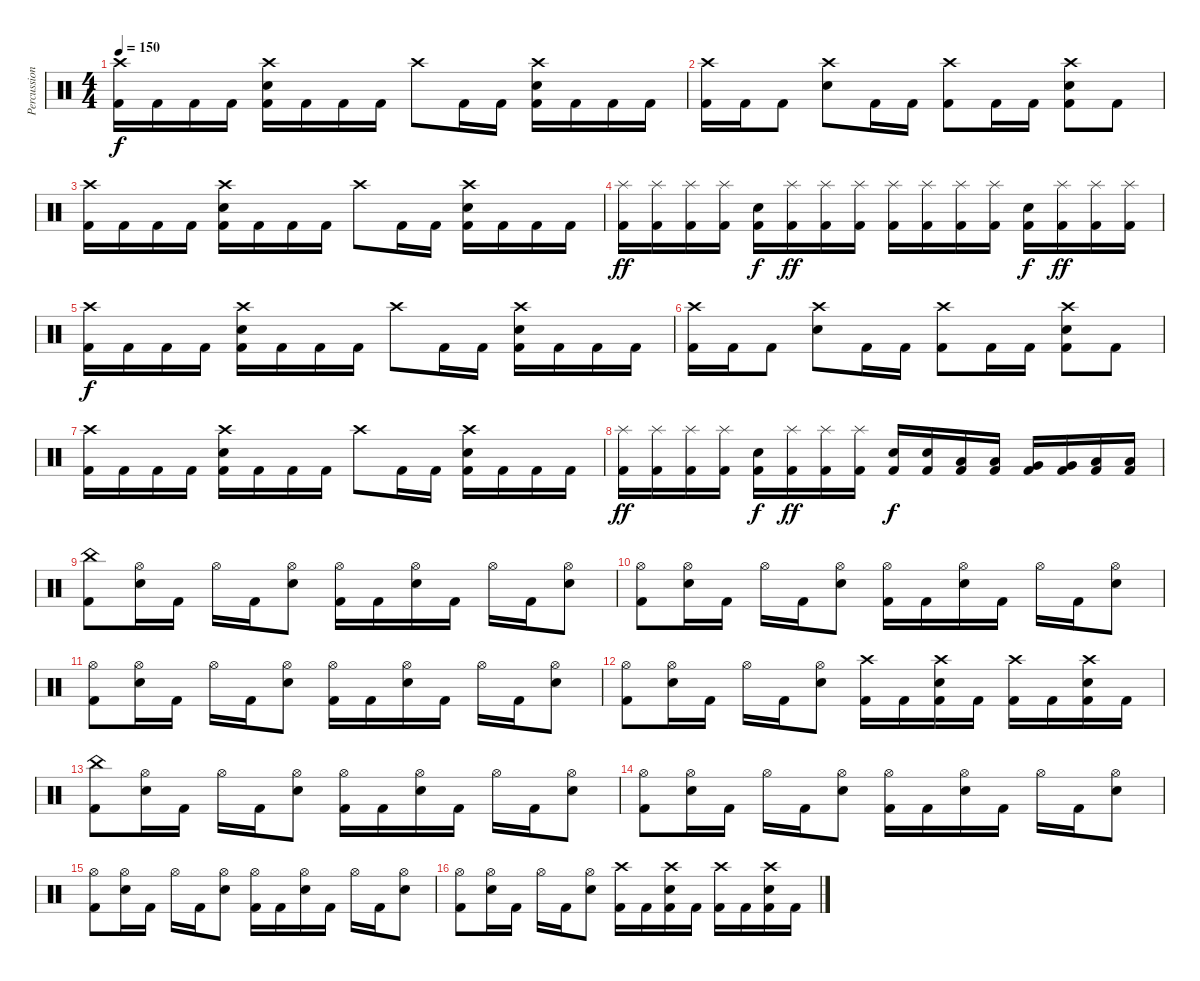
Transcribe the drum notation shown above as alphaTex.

\track ("Percussion" "Percussion") {instrument percussion}
\staff {score}
\articulation defaults
\ts (4 4)
\tempo 150
\clef neutral
\ks c
("Crash high (hit)" "Kick (hit) 2").16{dy f} "Kick (hit) 2".16 "Kick (hit) 2".16 "Kick (hit) 2".16 ("Crash high (hit)" "Electric Snare (hit)" "Kick (hit) 2").16 "Kick (hit) 2".16 "Kick (hit) 2".16 "Kick (hit) 2".16 "Crash high (hit)".8 "Kick (hit) 2".16 "Kick (hit) 2".16 ("Crash high (hit)" "Electric Snare (hit)" "Kick (hit) 2").16 "Kick (hit) 2".16 "Kick (hit) 2".16 "Kick (hit) 2".16 |
("Crash high (hit)" "Kick (hit) 2").16 "Kick (hit) 2".16 "Kick (hit) 2".8 ("Crash high (hit)" "Electric Snare (hit)").8 "Kick (hit) 2".16 "Kick (hit) 2".16 ("Crash high (hit)" "Kick (hit) 2").8 "Kick (hit) 2".16 "Kick (hit) 2".16 ("Crash high (hit)" "Electric Snare (hit)" "Kick (hit) 2").8 "Kick (hit) 2".8 |
("Crash high (hit)" "Kick (hit) 2").16 "Kick (hit) 2".16 "Kick (hit) 2".16 "Kick (hit) 2".16 ("Crash high (hit)" "Electric Snare (hit)" "Kick (hit) 2").16 "Kick (hit) 2".16 "Kick (hit) 2".16 "Kick (hit) 2".16 "Crash high (hit)".8 "Kick (hit) 2".16 "Kick (hit) 2".16 ("Crash high (hit)" "Electric Snare (hit)" "Kick (hit) 2").16 "Kick (hit) 2".16 "Kick (hit) 2".16 "Kick (hit) 2".16 |
("Splash (hit)" "Kick (hit) 2").16{dy ff} ("Splash (hit)" "Kick (hit) 2").16 ("Splash (hit)" "Kick (hit) 2").16 ("Splash (hit)" "Kick (hit) 2").16 ("Electric Snare (hit)" "Kick (hit) 2").16{dy f} ("Splash (hit)" "Kick (hit) 2").16{dy ff} ("Splash (hit)" "Kick (hit) 2").16 ("Splash (hit)" "Kick (hit) 2").16 ("Splash (hit)" "Kick (hit) 2").16 ("Splash (hit)" "Kick (hit) 2").16 ("Splash (hit)" "Kick (hit) 2").16 ("Splash (hit)" "Kick (hit) 2").16 ("Electric Snare (hit)" "Kick (hit) 2").16{dy f} ("Splash (hit)" "Kick (hit) 2").16{dy ff} ("Splash (hit)" "Kick (hit) 2").16 ("Splash (hit)" "Kick (hit) 2").16 |
("Crash high (hit)" "Kick (hit) 2").16{dy f} "Kick (hit) 2".16 "Kick (hit) 2".16 "Kick (hit) 2".16 ("Crash high (hit)" "Electric Snare (hit)" "Kick (hit) 2").16 "Kick (hit) 2".16 "Kick (hit) 2".16 "Kick (hit) 2".16 "Crash high (hit)".8 "Kick (hit) 2".16 "Kick (hit) 2".16 ("Crash high (hit)" "Electric Snare (hit)" "Kick (hit) 2").16 "Kick (hit) 2".16 "Kick (hit) 2".16 "Kick (hit) 2".16 |
("Crash high (hit)" "Kick (hit) 2").16 "Kick (hit) 2".16 "Kick (hit) 2".8 ("Crash high (hit)" "Electric Snare (hit)").8 "Kick (hit) 2".16 "Kick (hit) 2".16 ("Crash high (hit)" "Kick (hit) 2").8 "Kick (hit) 2".16 "Kick (hit) 2".16 ("Crash high (hit)" "Electric Snare (hit)" "Kick (hit) 2").8 "Kick (hit) 2".8 |
("Crash high (hit)" "Kick (hit) 2").16 "Kick (hit) 2".16 "Kick (hit) 2".16 "Kick (hit) 2".16 ("Crash high (hit)" "Electric Snare (hit)" "Kick (hit) 2").16 "Kick (hit) 2".16 "Kick (hit) 2".16 "Kick (hit) 2".16 "Crash high (hit)".8 "Kick (hit) 2".16 "Kick (hit) 2".16 ("Crash high (hit)" "Electric Snare (hit)" "Kick (hit) 2").16 "Kick (hit) 2".16 "Kick (hit) 2".16 "Kick (hit) 2".16 |
("Splash (hit)" "Kick (hit) 2").16{dy ff} ("Splash (hit)" "Kick (hit) 2").16 ("Splash (hit)" "Kick (hit) 2").16 ("Splash (hit)" "Kick (hit) 2").16 ("Electric Snare (hit)" "Kick (hit) 2").16{dy f} ("Splash (hit)" "Kick (hit) 2").16{dy ff} ("Splash (hit)" "Kick (hit) 2").16 ("Splash (hit)" "Kick (hit) 2").16 ("Electric Snare (hit)" "Kick (hit) 2").16{dy f} ("Electric Snare (hit)" "Kick (hit) 2").16 ("Low Tom (hit)" "Kick (hit) 2").16 ("Low Tom (hit)" "Kick (hit) 2").16 ("Very Low Tom (hit)" "Kick (hit) 2").16 ("Very Low Tom (hit)" "Kick (hit) 2").16 ("Low Floor Tom (hit)" "Kick (hit) 2").16 ("Low Floor Tom (hit)" "Kick (hit) 2").16 |
("China (hit)" "Kick (hit) 2").8 ("Hi-Hat (open)" "Electric Snare (hit)").16 "Kick (hit) 2".16 "Hi-Hat (open)".16 "Kick (hit) 2".16 ("Hi-Hat (open)" "Electric Snare (hit)").8 ("Hi-Hat (open)" "Kick (hit) 2").16 "Kick (hit) 2".16 ("Hi-Hat (open)" "Electric Snare (hit)").16 "Kick (hit) 2".16 "Hi-Hat (open)".16 "Kick (hit) 2".16 ("Hi-Hat (open)" "Electric Snare (hit)").8 |
("Hi-Hat (open)" "Kick (hit) 2").8 ("Hi-Hat (open)" "Electric Snare (hit)").16 "Kick (hit) 2".16 "Hi-Hat (open)".16 "Kick (hit) 2".16 ("Hi-Hat (open)" "Electric Snare (hit)").8 ("Hi-Hat (open)" "Kick (hit) 2").16 "Kick (hit) 2".16 ("Hi-Hat (open)" "Electric Snare (hit)").16 "Kick (hit) 2".16 "Hi-Hat (open)".16 "Kick (hit) 2".16 ("Hi-Hat (open)" "Electric Snare (hit)").8 |
("Hi-Hat (open)" "Kick (hit) 2").8 ("Hi-Hat (open)" "Electric Snare (hit)").16 "Kick (hit) 2".16 "Hi-Hat (open)".16 "Kick (hit) 2".16 ("Hi-Hat (open)" "Electric Snare (hit)").8 ("Hi-Hat (open)" "Kick (hit) 2").16 "Kick (hit) 2".16 ("Hi-Hat (open)" "Electric Snare (hit)").16 "Kick (hit) 2".16 "Hi-Hat (open)".16 "Kick (hit) 2".16 ("Hi-Hat (open)" "Electric Snare (hit)").8 |
("Hi-Hat (open)" "Kick (hit) 2").8 ("Hi-Hat (open)" "Electric Snare (hit)").16 "Kick (hit) 2".16 "Hi-Hat (open)".16 "Kick (hit) 2".16 ("Hi-Hat (open)" "Electric Snare (hit)").8 ("Crash high (hit)" "Kick (hit) 2").16 "Kick (hit) 2".16 ("Crash high (hit)" "Electric Snare (hit)" "Kick (hit) 2").16 "Kick (hit) 2".16 ("Crash high (hit)" "Kick (hit) 2").16 "Kick (hit) 2".16 ("Crash high (hit)" "Electric Snare (hit)" "Kick (hit) 2").16 "Kick (hit) 2".16 |
("China (hit)" "Kick (hit) 2").8 ("Hi-Hat (open)" "Electric Snare (hit)").16 "Kick (hit) 2".16 "Hi-Hat (open)".16 "Kick (hit) 2".16 ("Hi-Hat (open)" "Electric Snare (hit)").8 ("Hi-Hat (open)" "Kick (hit) 2").16 "Kick (hit) 2".16 ("Hi-Hat (open)" "Electric Snare (hit)").16 "Kick (hit) 2".16 "Hi-Hat (open)".16 "Kick (hit) 2".16 ("Hi-Hat (open)" "Electric Snare (hit)").8 |
("Hi-Hat (open)" "Kick (hit) 2").8 ("Hi-Hat (open)" "Electric Snare (hit)").16 "Kick (hit) 2".16 "Hi-Hat (open)".16 "Kick (hit) 2".16 ("Hi-Hat (open)" "Electric Snare (hit)").8 ("Hi-Hat (open)" "Kick (hit) 2").16 "Kick (hit) 2".16 ("Hi-Hat (open)" "Electric Snare (hit)").16 "Kick (hit) 2".16 "Hi-Hat (open)".16 "Kick (hit) 2".16 ("Hi-Hat (open)" "Electric Snare (hit)").8 |
("Hi-Hat (open)" "Kick (hit) 2").8 ("Hi-Hat (open)" "Electric Snare (hit)").16 "Kick (hit) 2".16 "Hi-Hat (open)".16 "Kick (hit) 2".16 ("Hi-Hat (open)" "Electric Snare (hit)").8 ("Hi-Hat (open)" "Kick (hit) 2").16 "Kick (hit) 2".16 ("Hi-Hat (open)" "Electric Snare (hit)").16 "Kick (hit) 2".16 "Hi-Hat (open)".16 "Kick (hit) 2".16 ("Hi-Hat (open)" "Electric Snare (hit)").8 |
("Hi-Hat (open)" "Kick (hit) 2").8 ("Hi-Hat (open)" "Electric Snare (hit)").16 "Kick (hit) 2".16 "Hi-Hat (open)".16 "Kick (hit) 2".16 ("Hi-Hat (open)" "Electric Snare (hit)").8 ("Crash high (hit)" "Kick (hit) 2").16 "Kick (hit) 2".16 ("Crash high (hit)" "Electric Snare (hit)" "Kick (hit) 2").16 "Kick (hit) 2".16 ("Crash high (hit)" "Kick (hit) 2").16 "Kick (hit) 2".16 ("Crash high (hit)" "Electric Snare (hit)" "Kick (hit) 2").16 "Kick (hit) 2".16
